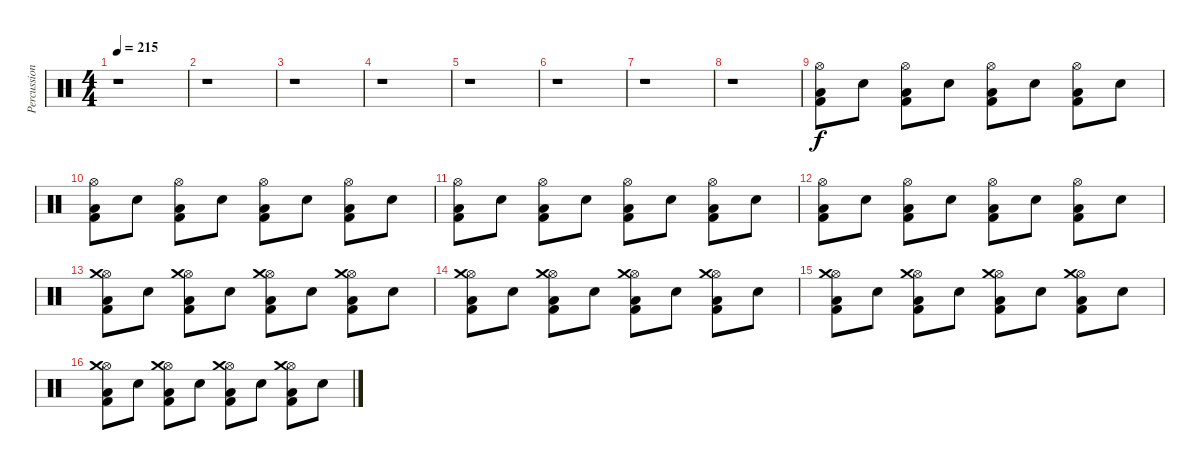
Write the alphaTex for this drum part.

\track ("Percussion" "Percussion") {instrument percussion}
\staff {score}
\articulation defaults
\ts (4 4)
\tempo 215
\clef neutral
\ks c
r.1{dy f} |
r.1 |
r.1 |
r.1 |
r.1 |
r.1 |
r.1 |
r.1 |
("Hi-Hat (open)" "Kick (hit) 2" "Low Floor Tom (hit)").8{volume 13} "Electric Snare (hit)".8 ("Hi-Hat (open)" "Kick (hit) 2" "Low Floor Tom (hit)").8 "Electric Snare (hit)".8 ("Hi-Hat (open)" "Kick (hit) 2" "Low Floor Tom (hit)").8 "Electric Snare (hit)".8 ("Hi-Hat (open)" "Kick (hit) 2" "Low Floor Tom (hit)").8 "Electric Snare (hit)".8 |
("Hi-Hat (open)" "Kick (hit) 2" "Low Floor Tom (hit)").8 "Electric Snare (hit)".8 ("Hi-Hat (open)" "Kick (hit) 2" "Low Floor Tom (hit)").8 "Electric Snare (hit)".8 ("Hi-Hat (open)" "Kick (hit) 2" "Low Floor Tom (hit)").8 "Electric Snare (hit)".8 ("Hi-Hat (open)" "Kick (hit) 2" "Low Floor Tom (hit)").8 "Electric Snare (hit)".8 |
("Hi-Hat (open)" "Kick (hit) 2" "Low Floor Tom (hit)").8 "Electric Snare (hit)".8 ("Hi-Hat (open)" "Kick (hit) 2" "Low Floor Tom (hit)").8 "Electric Snare (hit)".8 ("Hi-Hat (open)" "Kick (hit) 2" "Low Floor Tom (hit)").8 "Electric Snare (hit)".8 ("Hi-Hat (open)" "Kick (hit) 2" "Low Floor Tom (hit)").8 "Electric Snare (hit)".8 |
("Hi-Hat (open)" "Kick (hit) 2" "Low Floor Tom (hit)").8 "Electric Snare (hit)".8 ("Hi-Hat (open)" "Kick (hit) 2" "Low Floor Tom (hit)").8 "Electric Snare (hit)".8 ("Hi-Hat (open)" "Kick (hit) 2" "Low Floor Tom (hit)").8 "Electric Snare (hit)".8 ("Hi-Hat (open)" "Kick (hit) 2" "Low Floor Tom (hit)").8 "Electric Snare (hit)".8 |
("Hi-Hat (open)" "Crash medium (hit)" "Kick (hit) 2" "Low Floor Tom (hit)").8 "Electric Snare (hit)".8 ("Hi-Hat (open)" "Crash medium (hit)" "Kick (hit) 2" "Low Floor Tom (hit)").8 "Electric Snare (hit)".8 ("Hi-Hat (open)" "Crash medium (hit)" "Kick (hit) 2" "Low Floor Tom (hit)").8 "Electric Snare (hit)".8 ("Hi-Hat (open)" "Crash medium (hit)" "Kick (hit) 2" "Low Floor Tom (hit)").8 "Electric Snare (hit)".8 |
("Hi-Hat (open)" "Crash medium (hit)" "Kick (hit) 2" "Low Floor Tom (hit)").8 "Electric Snare (hit)".8 ("Hi-Hat (open)" "Crash medium (hit)" "Kick (hit) 2" "Low Floor Tom (hit)").8 "Electric Snare (hit)".8 ("Hi-Hat (open)" "Crash medium (hit)" "Kick (hit) 2" "Low Floor Tom (hit)").8 "Electric Snare (hit)".8 ("Hi-Hat (open)" "Crash medium (hit)" "Kick (hit) 2" "Low Floor Tom (hit)").8 "Electric Snare (hit)".8 |
("Hi-Hat (open)" "Crash medium (hit)" "Kick (hit) 2" "Low Floor Tom (hit)").8 "Electric Snare (hit)".8 ("Hi-Hat (open)" "Crash medium (hit)" "Kick (hit) 2" "Low Floor Tom (hit)").8 "Electric Snare (hit)".8 ("Hi-Hat (open)" "Crash medium (hit)" "Kick (hit) 2" "Low Floor Tom (hit)").8 "Electric Snare (hit)".8 ("Hi-Hat (open)" "Crash medium (hit)" "Kick (hit) 2" "Low Floor Tom (hit)").8 "Electric Snare (hit)".8 |
("Hi-Hat (open)" "Crash medium (hit)" "Kick (hit) 2" "Low Floor Tom (hit)").8 "Electric Snare (hit)".8 ("Hi-Hat (open)" "Crash medium (hit)" "Kick (hit) 2" "Low Floor Tom (hit)").8 "Electric Snare (hit)".8 ("Hi-Hat (open)" "Crash medium (hit)" "Kick (hit) 2" "Low Floor Tom (hit)").8 "Electric Snare (hit)".8 ("Hi-Hat (open)" "Crash medium (hit)" "Kick (hit) 2" "Low Floor Tom (hit)").8 "Electric Snare (hit)".8
